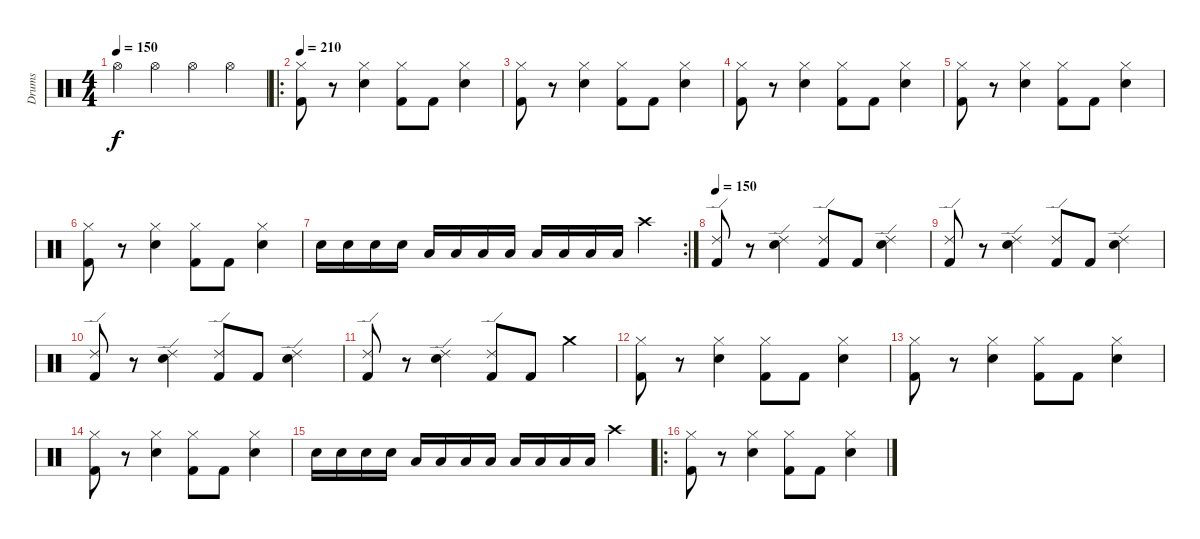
\track ("Drums" "Drums") {instrument percussion}
\staff {score}
\articulation defaults
\ts (4 4)
\tempo 150
\clef neutral
\ks c "Hi-Hat (open)".4{dy f} "Hi-Hat (open)".4 "Hi-Hat (open)".4 "Hi-Hat (open)".4
|
\ro
\tempo 210
("Kick (hit) 2" "Hi-Hat (closed)").8 r.8 ("Snare (hit) 2" "Hi-Hat (closed)").4 ("Kick (hit) 2" "Hi-Hat (closed)").8 "Kick (hit) 2".8 ("Snare (hit) 2" "Hi-Hat (closed)").4 |
("Kick (hit) 2" "Hi-Hat (closed)").8 r.8 ("Snare (hit) 2" "Hi-Hat (closed)").4 ("Kick (hit) 2" "Hi-Hat (closed)").8 "Kick (hit) 2".8 ("Snare (hit) 2" "Hi-Hat (closed)").4 |
("Kick (hit) 2" "Hi-Hat (closed)").8 r.8 ("Snare (hit) 2" "Hi-Hat (closed)").4 ("Kick (hit) 2" "Hi-Hat (closed)").8 "Kick (hit) 2".8 ("Snare (hit) 2" "Hi-Hat (closed)").4 |
("Kick (hit) 2" "Hi-Hat (closed)").8 r.8 ("Snare (hit) 2" "Hi-Hat (closed)").4 ("Kick (hit) 2" "Hi-Hat (closed)").8 "Kick (hit) 2".8 ("Snare (hit) 2" "Hi-Hat (closed)").4 |
("Kick (hit) 2" "Hi-Hat (closed)").8 r.8 ("Snare (hit) 2" "Hi-Hat (closed)").4 ("Kick (hit) 2" "Hi-Hat (closed)").8 "Kick (hit) 2".8 ("Snare (hit) 2" "Hi-Hat (closed)").4 |
\rc 2 "Snare (hit) 2".16 "Snare (hit) 2".16 "Snare (hit) 2".16 "Snare (hit) 2".16 "Low Tom (hit)".16 "Low Tom (hit)".16 "Low Tom (hit)".16 "Low Tom (hit)".16 "Low Floor Tom (hit)".16 "Low Floor Tom (hit)".16 "Low Floor Tom (hit)".16 "Low Floor Tom (hit)".16 "Crash high (hit)".4
|
\tempo 150
("Kick (hit) 2" "Ride (edge) 2").8 r.8 ("Snare (hit) 2" "Ride (edge) 2").4 ("Kick (hit) 2" "Ride (edge) 2").8 "Kick (hit) 2".8 ("Snare (hit) 2" "Ride (edge) 2").4 |
("Kick (hit) 2" "Ride (edge) 2").8 r.8 ("Snare (hit) 2" "Ride (edge) 2").4 ("Kick (hit) 2" "Ride (edge) 2").8 "Kick (hit) 2".8 ("Snare (hit) 2" "Ride (edge) 2").4 |
("Kick (hit) 2" "Ride (edge) 2").8 r.8 ("Snare (hit) 2" "Ride (edge) 2").4 ("Kick (hit) 2" "Ride (edge) 2").8 "Kick (hit) 2".8 ("Snare (hit) 2" "Ride (edge) 2").4 |
("Kick (hit) 2" "Ride (edge) 2").8 r.8 ("Snare (hit) 2" "Ride (edge) 2").4 ("Kick (hit) 2" "Ride (edge) 2").8 "Kick (hit) 2".8 "Crash medium (hit)".4 |
("Kick (hit) 2" "Hi-Hat (closed)").8 r.8 ("Snare (hit) 2" "Hi-Hat (closed)").4 ("Kick (hit) 2" "Hi-Hat (closed)").8 "Kick (hit) 2".8 ("Snare (hit) 2" "Hi-Hat (closed)").4 |
("Kick (hit) 2" "Hi-Hat (closed)").8 r.8 ("Snare (hit) 2" "Hi-Hat (closed)").4 ("Kick (hit) 2" "Hi-Hat (closed)").8 "Kick (hit) 2".8 ("Snare (hit) 2" "Hi-Hat (closed)").4 |
("Kick (hit) 2" "Hi-Hat (closed)").8 r.8 ("Snare (hit) 2" "Hi-Hat (closed)").4 ("Kick (hit) 2" "Hi-Hat (closed)").8 "Kick (hit) 2".8 ("Snare (hit) 2" "Hi-Hat (closed)").4 |
"Snare (hit) 2".16 "Snare (hit) 2".16 "Snare (hit) 2".16 "Snare (hit) 2".16 "Low Tom (hit)".16 "Low Tom (hit)".16 "Low Tom (hit)".16 "Low Tom (hit)".16 "Low Floor Tom (hit)".16 "Low Floor Tom (hit)".16 "Low Floor Tom (hit)".16 "Low Floor Tom (hit)".16 "Crash high (hit)".4 |
\ro
("Kick (hit) 2" "Hi-Hat (closed)").8 r.8 ("Snare (hit) 2" "Hi-Hat (closed)").4 ("Kick (hit) 2" "Hi-Hat (closed)").8 "Kick (hit) 2".8 ("Snare (hit) 2" "Hi-Hat (closed)").4
